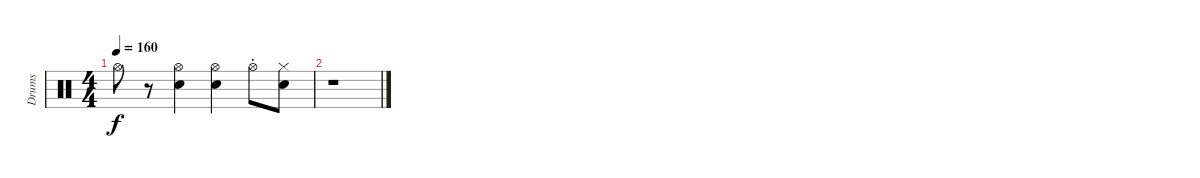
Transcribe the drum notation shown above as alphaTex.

\track ("Drums" "Drums") {instrument percussion}
\staff {score}
\articulation defaults
\ts (4 4)
\tempo 160
\clef neutral
\ks c "Hi-Hat (open)".8{dy f}
r.8 ("Hi-Hat (open)" "Electric Snare (hit)").4 ("Hi-Hat (open)" "Electric Snare (hit)").4 "Hi-Hat (open)"{st}.8 ("Hi-Hat (closed)" "Electric Snare (hit)").8 |
r.1
